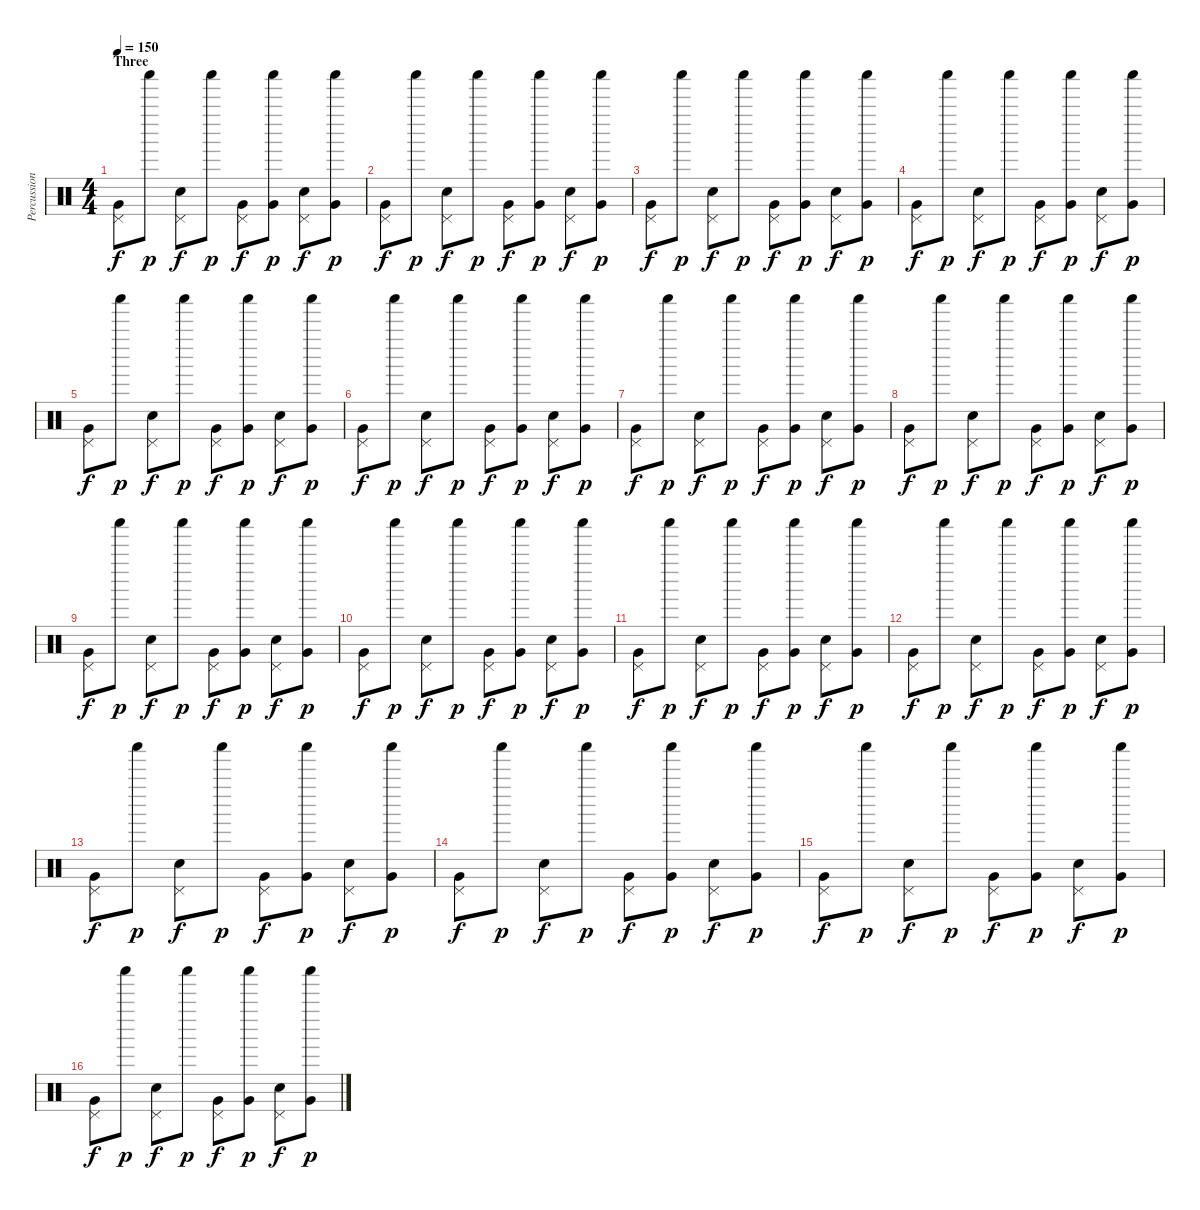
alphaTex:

\track ("Percussion" "Percussion") {instrument percussion}
\staff {score}
\articulation defaults
\ts (4 4)
\section ("" "Three")
\tempo 150
\clef neutral
\ks c
("Very Low Tom (hit)" "Pedal Hi-Hat (hit)").8{dy f} "Shaker (hit)".8{dy p} ("Snare (hit) 2" "Pedal Hi-Hat (hit)").8{dy f} "Shaker (hit)".8{dy p} ("Very Low Tom (hit)" "Pedal Hi-Hat (hit)").8{dy f} ("Very Low Tom (hit)" "Shaker (hit)").8{dy p} ("Snare (hit) 2" "Pedal Hi-Hat (hit)").8{dy f} ("Very Low Tom (hit)" "Shaker (hit)").8{dy p} |
("Very Low Tom (hit)" "Pedal Hi-Hat (hit)").8{dy f} "Shaker (hit)".8{dy p} ("Snare (hit) 2" "Pedal Hi-Hat (hit)").8{dy f} "Shaker (hit)".8{dy p} ("Very Low Tom (hit)" "Pedal Hi-Hat (hit)").8{dy f} ("Very Low Tom (hit)" "Shaker (hit)").8{dy p} ("Snare (hit) 2" "Pedal Hi-Hat (hit)").8{dy f} ("Very Low Tom (hit)" "Shaker (hit)").8{dy p} |
("Very Low Tom (hit)" "Pedal Hi-Hat (hit)").8{dy f} "Shaker (hit)".8{dy p} ("Snare (hit) 2" "Pedal Hi-Hat (hit)").8{dy f} "Shaker (hit)".8{dy p} ("Very Low Tom (hit)" "Pedal Hi-Hat (hit)").8{dy f} ("Very Low Tom (hit)" "Shaker (hit)").8{dy p} ("Snare (hit) 2" "Pedal Hi-Hat (hit)").8{dy f} ("Very Low Tom (hit)" "Shaker (hit)").8{dy p} |
("Very Low Tom (hit)" "Pedal Hi-Hat (hit)").8{dy f} "Shaker (hit)".8{dy p} ("Snare (hit) 2" "Pedal Hi-Hat (hit)").8{dy f} "Shaker (hit)".8{dy p} ("Very Low Tom (hit)" "Pedal Hi-Hat (hit)").8{dy f} ("Very Low Tom (hit)" "Shaker (hit)").8{dy p} ("Snare (hit) 2" "Pedal Hi-Hat (hit)").8{dy f} ("Very Low Tom (hit)" "Shaker (hit)").8{dy p} |
("Very Low Tom (hit)" "Pedal Hi-Hat (hit)").8{dy f} "Shaker (hit)".8{dy p} ("Snare (hit) 2" "Pedal Hi-Hat (hit)").8{dy f} "Shaker (hit)".8{dy p} ("Very Low Tom (hit)" "Pedal Hi-Hat (hit)").8{dy f} ("Very Low Tom (hit)" "Shaker (hit)").8{dy p} ("Snare (hit) 2" "Pedal Hi-Hat (hit)").8{dy f} ("Very Low Tom (hit)" "Shaker (hit)").8{dy p} |
("Very Low Tom (hit)" "Pedal Hi-Hat (hit)").8{dy f} "Shaker (hit)".8{dy p} ("Snare (hit) 2" "Pedal Hi-Hat (hit)").8{dy f} "Shaker (hit)".8{dy p} ("Very Low Tom (hit)" "Pedal Hi-Hat (hit)").8{dy f} ("Very Low Tom (hit)" "Shaker (hit)").8{dy p} ("Snare (hit) 2" "Pedal Hi-Hat (hit)").8{dy f} ("Very Low Tom (hit)" "Shaker (hit)").8{dy p} |
("Very Low Tom (hit)" "Pedal Hi-Hat (hit)").8{dy f} "Shaker (hit)".8{dy p} ("Snare (hit) 2" "Pedal Hi-Hat (hit)").8{dy f} "Shaker (hit)".8{dy p} ("Very Low Tom (hit)" "Pedal Hi-Hat (hit)").8{dy f} ("Very Low Tom (hit)" "Shaker (hit)").8{dy p} ("Snare (hit) 2" "Pedal Hi-Hat (hit)").8{dy f} ("Very Low Tom (hit)" "Shaker (hit)").8{dy p} |
("Very Low Tom (hit)" "Pedal Hi-Hat (hit)").8{dy f} "Shaker (hit)".8{dy p} ("Snare (hit) 2" "Pedal Hi-Hat (hit)").8{dy f} "Shaker (hit)".8{dy p} ("Very Low Tom (hit)" "Pedal Hi-Hat (hit)").8{dy f} ("Very Low Tom (hit)" "Shaker (hit)").8{dy p} ("Snare (hit) 2" "Pedal Hi-Hat (hit)").8{dy f} ("Very Low Tom (hit)" "Shaker (hit)").8{dy p} |
("Very Low Tom (hit)" "Pedal Hi-Hat (hit)").8{dy f} "Shaker (hit)".8{dy p} ("Snare (hit) 2" "Pedal Hi-Hat (hit)").8{dy f} "Shaker (hit)".8{dy p} ("Very Low Tom (hit)" "Pedal Hi-Hat (hit)").8{dy f} ("Very Low Tom (hit)" "Shaker (hit)").8{dy p} ("Snare (hit) 2" "Pedal Hi-Hat (hit)").8{dy f} ("Very Low Tom (hit)" "Shaker (hit)").8{dy p} |
("Very Low Tom (hit)" "Pedal Hi-Hat (hit)").8{dy f} "Shaker (hit)".8{dy p} ("Snare (hit) 2" "Pedal Hi-Hat (hit)").8{dy f} "Shaker (hit)".8{dy p} ("Very Low Tom (hit)" "Pedal Hi-Hat (hit)").8{dy f} ("Very Low Tom (hit)" "Shaker (hit)").8{dy p} ("Snare (hit) 2" "Pedal Hi-Hat (hit)").8{dy f} ("Very Low Tom (hit)" "Shaker (hit)").8{dy p} |
("Very Low Tom (hit)" "Pedal Hi-Hat (hit)").8{dy f} "Shaker (hit)".8{dy p} ("Snare (hit) 2" "Pedal Hi-Hat (hit)").8{dy f} "Shaker (hit)".8{dy p} ("Very Low Tom (hit)" "Pedal Hi-Hat (hit)").8{dy f} ("Very Low Tom (hit)" "Shaker (hit)").8{dy p} ("Snare (hit) 2" "Pedal Hi-Hat (hit)").8{dy f} ("Very Low Tom (hit)" "Shaker (hit)").8{dy p} |
("Very Low Tom (hit)" "Pedal Hi-Hat (hit)").8{dy f} "Shaker (hit)".8{dy p} ("Snare (hit) 2" "Pedal Hi-Hat (hit)").8{dy f} "Shaker (hit)".8{dy p} ("Very Low Tom (hit)" "Pedal Hi-Hat (hit)").8{dy f} ("Very Low Tom (hit)" "Shaker (hit)").8{dy p} ("Snare (hit) 2" "Pedal Hi-Hat (hit)").8{dy f} ("Very Low Tom (hit)" "Shaker (hit)").8{dy p} |
("Very Low Tom (hit)" "Pedal Hi-Hat (hit)").8{dy f} "Shaker (hit)".8{dy p} ("Snare (hit) 2" "Pedal Hi-Hat (hit)").8{dy f} "Shaker (hit)".8{dy p} ("Very Low Tom (hit)" "Pedal Hi-Hat (hit)").8{dy f} ("Very Low Tom (hit)" "Shaker (hit)").8{dy p} ("Snare (hit) 2" "Pedal Hi-Hat (hit)").8{dy f} ("Very Low Tom (hit)" "Shaker (hit)").8{dy p} |
("Very Low Tom (hit)" "Pedal Hi-Hat (hit)").8{dy f} "Shaker (hit)".8{dy p} ("Snare (hit) 2" "Pedal Hi-Hat (hit)").8{dy f} "Shaker (hit)".8{dy p} ("Very Low Tom (hit)" "Pedal Hi-Hat (hit)").8{dy f} ("Very Low Tom (hit)" "Shaker (hit)").8{dy p} ("Snare (hit) 2" "Pedal Hi-Hat (hit)").8{dy f} ("Very Low Tom (hit)" "Shaker (hit)").8{dy p} |
("Very Low Tom (hit)" "Pedal Hi-Hat (hit)").8{dy f} "Shaker (hit)".8{dy p} ("Snare (hit) 2" "Pedal Hi-Hat (hit)").8{dy f} "Shaker (hit)".8{dy p} ("Very Low Tom (hit)" "Pedal Hi-Hat (hit)").8{dy f} ("Very Low Tom (hit)" "Shaker (hit)").8{dy p} ("Snare (hit) 2" "Pedal Hi-Hat (hit)").8{dy f} ("Very Low Tom (hit)" "Shaker (hit)").8{dy p} |
("Very Low Tom (hit)" "Pedal Hi-Hat (hit)").8{dy f} "Shaker (hit)".8{dy p} ("Snare (hit) 2" "Pedal Hi-Hat (hit)").8{dy f} "Shaker (hit)".8{dy p} ("Very Low Tom (hit)" "Pedal Hi-Hat (hit)").8{dy f} ("Very Low Tom (hit)" "Shaker (hit)").8{dy p} ("Snare (hit) 2" "Pedal Hi-Hat (hit)").8{dy f} ("Very Low Tom (hit)" "Shaker (hit)").8{dy p}
